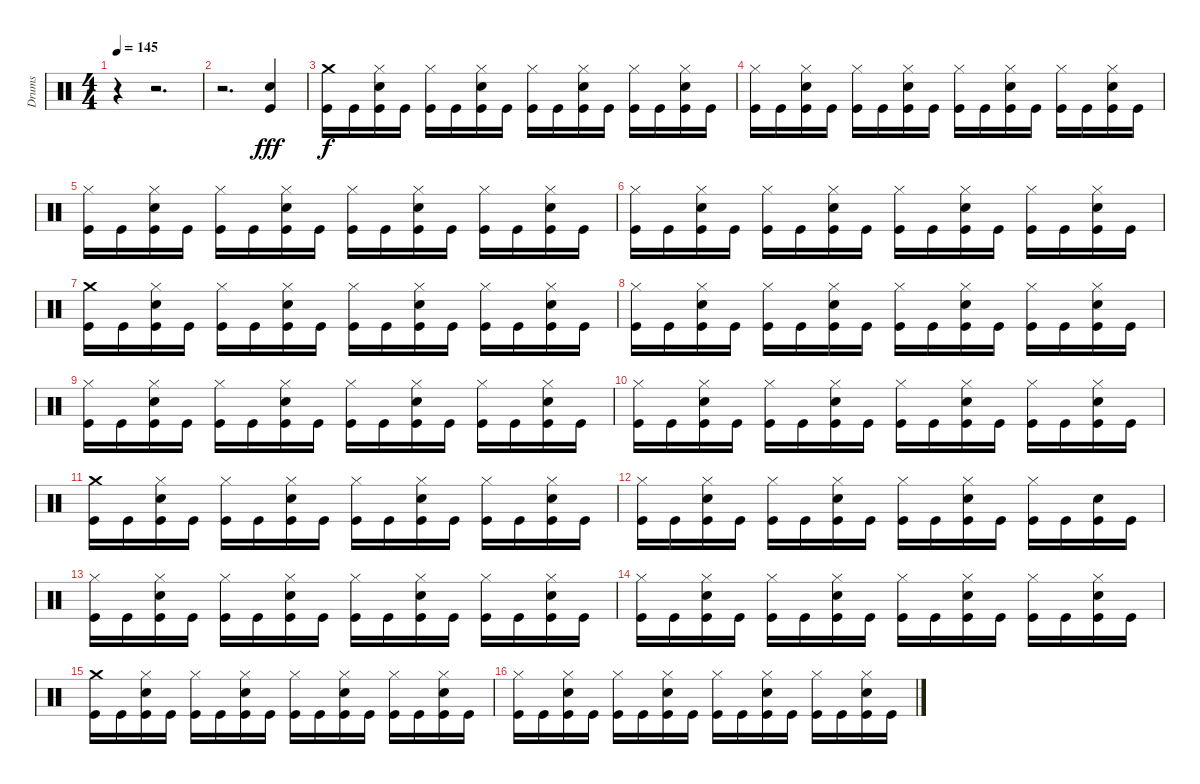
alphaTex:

\track ("Drums" "Drums") {instrument percussion}
\staff {score}
\articulation defaults
\ts (4 4)
\tempo 145
\clef neutral
\ks c
r.4{dy fff} r.2{d} |
r.2{d} ("Snare (hit) 2" "Kick (hit)").4 |
("Crash medium (hit)" "Kick (hit)").16{dy f} "Kick (hit)".16 ("Hi-Hat (closed)" "Snare (hit) 2" "Kick (hit)").16 "Kick (hit)".16 ("Hi-Hat (closed)" "Kick (hit)").16 "Kick (hit)".16 ("Hi-Hat (closed)" "Snare (hit) 2" "Kick (hit)").16 "Kick (hit)".16 ("Hi-Hat (closed)" "Kick (hit)").16 "Kick (hit)".16 ("Hi-Hat (closed)" "Snare (hit) 2" "Kick (hit)").16 "Kick (hit)".16 ("Hi-Hat (closed)" "Kick (hit)").16 "Kick (hit)".16 ("Hi-Hat (closed)" "Snare (hit) 2" "Kick (hit)").16 "Kick (hit)".16 |
("Hi-Hat (closed)" "Kick (hit)").16 "Kick (hit)".16 ("Hi-Hat (closed)" "Snare (hit) 2" "Kick (hit)").16 "Kick (hit)".16 ("Hi-Hat (closed)" "Kick (hit)").16 "Kick (hit)".16 ("Hi-Hat (closed)" "Snare (hit) 2" "Kick (hit)").16 "Kick (hit)".16 ("Hi-Hat (closed)" "Kick (hit)").16 "Kick (hit)".16 ("Hi-Hat (closed)" "Snare (hit) 2" "Kick (hit)").16 "Kick (hit)".16 ("Hi-Hat (closed)" "Kick (hit)").16 "Kick (hit)".16 ("Hi-Hat (closed)" "Snare (hit) 2" "Kick (hit)").16 "Kick (hit)".16 |
("Hi-Hat (closed)" "Kick (hit)").16 "Kick (hit)".16 ("Hi-Hat (closed)" "Snare (hit) 2" "Kick (hit)").16 "Kick (hit)".16 ("Hi-Hat (closed)" "Kick (hit)").16 "Kick (hit)".16 ("Hi-Hat (closed)" "Snare (hit) 2" "Kick (hit)").16 "Kick (hit)".16 ("Hi-Hat (closed)" "Kick (hit)").16 "Kick (hit)".16 ("Hi-Hat (closed)" "Snare (hit) 2" "Kick (hit)").16 "Kick (hit)".16 ("Hi-Hat (closed)" "Kick (hit)").16 "Kick (hit)".16 ("Hi-Hat (closed)" "Snare (hit) 2" "Kick (hit)").16 "Kick (hit)".16 |
("Hi-Hat (closed)" "Kick (hit)").16 "Kick (hit)".16 ("Hi-Hat (closed)" "Snare (hit) 2" "Kick (hit)").16 "Kick (hit)".16 ("Hi-Hat (closed)" "Kick (hit)").16 "Kick (hit)".16 ("Hi-Hat (closed)" "Snare (hit) 2" "Kick (hit)").16 "Kick (hit)".16 ("Hi-Hat (closed)" "Kick (hit)").16 "Kick (hit)".16 ("Hi-Hat (closed)" "Snare (hit) 2" "Kick (hit)").16 "Kick (hit)".16 ("Hi-Hat (closed)" "Kick (hit)").16 "Kick (hit)".16 ("Hi-Hat (closed)" "Snare (hit) 2" "Kick (hit)").16 "Kick (hit)".16 |
("Crash medium (hit)" "Kick (hit)").16 "Kick (hit)".16 ("Hi-Hat (closed)" "Snare (hit) 2" "Kick (hit)").16 "Kick (hit)".16 ("Hi-Hat (closed)" "Kick (hit)").16 "Kick (hit)".16 ("Hi-Hat (closed)" "Snare (hit) 2" "Kick (hit)").16 "Kick (hit)".16 ("Hi-Hat (closed)" "Kick (hit)").16 "Kick (hit)".16 ("Hi-Hat (closed)" "Snare (hit) 2" "Kick (hit)").16 "Kick (hit)".16 ("Hi-Hat (closed)" "Kick (hit)").16 "Kick (hit)".16 ("Hi-Hat (closed)" "Snare (hit) 2" "Kick (hit)").16 "Kick (hit)".16 |
("Hi-Hat (closed)" "Kick (hit)").16 "Kick (hit)".16 ("Hi-Hat (closed)" "Snare (hit) 2" "Kick (hit)").16 "Kick (hit)".16 ("Hi-Hat (closed)" "Kick (hit)").16 "Kick (hit)".16 ("Hi-Hat (closed)" "Snare (hit) 2" "Kick (hit)").16 "Kick (hit)".16 ("Hi-Hat (closed)" "Kick (hit)").16 "Kick (hit)".16 ("Hi-Hat (closed)" "Snare (hit) 2" "Kick (hit)").16 "Kick (hit)".16 ("Hi-Hat (closed)" "Kick (hit)").16 "Kick (hit)".16 ("Hi-Hat (closed)" "Snare (hit) 2" "Kick (hit)").16 "Kick (hit)".16 |
("Hi-Hat (closed)" "Kick (hit)").16 "Kick (hit)".16 ("Hi-Hat (closed)" "Snare (hit) 2" "Kick (hit)").16 "Kick (hit)".16 ("Hi-Hat (closed)" "Kick (hit)").16 "Kick (hit)".16 ("Hi-Hat (closed)" "Snare (hit) 2" "Kick (hit)").16 "Kick (hit)".16 ("Hi-Hat (closed)" "Kick (hit)").16 "Kick (hit)".16 ("Hi-Hat (closed)" "Snare (hit) 2" "Kick (hit)").16 "Kick (hit)".16 ("Hi-Hat (closed)" "Kick (hit)").16 "Kick (hit)".16 ("Hi-Hat (closed)" "Snare (hit) 2" "Kick (hit)").16 "Kick (hit)".16 |
("Hi-Hat (closed)" "Kick (hit)").16 "Kick (hit)".16 ("Hi-Hat (closed)" "Snare (hit) 2" "Kick (hit)").16 "Kick (hit)".16 ("Hi-Hat (closed)" "Kick (hit)").16 "Kick (hit)".16 ("Hi-Hat (closed)" "Snare (hit) 2" "Kick (hit)").16 "Kick (hit)".16 ("Hi-Hat (closed)" "Kick (hit)").16 "Kick (hit)".16 ("Hi-Hat (closed)" "Snare (hit) 2" "Kick (hit)").16 "Kick (hit)".16 ("Hi-Hat (closed)" "Kick (hit)").16 "Kick (hit)".16 ("Hi-Hat (closed)" "Snare (hit) 2" "Kick (hit)").16 "Kick (hit)".16 |
("Crash medium (hit)" "Kick (hit)").16 "Kick (hit)".16 ("Hi-Hat (closed)" "Snare (hit) 2" "Kick (hit)").16 "Kick (hit)".16 ("Hi-Hat (closed)" "Kick (hit)").16 "Kick (hit)".16 ("Hi-Hat (closed)" "Snare (hit) 2" "Kick (hit)").16 "Kick (hit)".16 ("Hi-Hat (closed)" "Kick (hit)").16 "Kick (hit)".16 ("Hi-Hat (closed)" "Snare (hit) 2" "Kick (hit)").16 "Kick (hit)".16 ("Hi-Hat (closed)" "Kick (hit)").16 "Kick (hit)".16 ("Hi-Hat (closed)" "Snare (hit) 2" "Kick (hit)").16 "Kick (hit)".16 |
("Hi-Hat (closed)" "Kick (hit)").16 "Kick (hit)".16 ("Hi-Hat (closed)" "Snare (hit) 2" "Kick (hit)").16 "Kick (hit)".16 ("Hi-Hat (closed)" "Kick (hit)").16 "Kick (hit)".16 ("Hi-Hat (closed)" "Snare (hit) 2" "Kick (hit)").16 "Kick (hit)".16 ("Hi-Hat (closed)" "Kick (hit)").16 "Kick (hit)".16 ("Hi-Hat (closed)" "Snare (hit) 2" "Kick (hit)").16 "Kick (hit)".16 ("Hi-Hat (closed)" "Kick (hit)").16 "Kick (hit)".16 ("Snare (hit) 2" "Kick (hit)").16 "Kick (hit)".16 |
("Hi-Hat (closed)" "Kick (hit)").16 "Kick (hit)".16 ("Hi-Hat (closed)" "Snare (hit) 2" "Kick (hit)").16 "Kick (hit)".16 ("Hi-Hat (closed)" "Kick (hit)").16 "Kick (hit)".16 ("Hi-Hat (closed)" "Snare (hit) 2" "Kick (hit)").16 "Kick (hit)".16 ("Hi-Hat (closed)" "Kick (hit)").16 "Kick (hit)".16 ("Hi-Hat (closed)" "Snare (hit) 2" "Kick (hit)").16 "Kick (hit)".16 ("Hi-Hat (closed)" "Kick (hit)").16 "Kick (hit)".16 ("Hi-Hat (closed)" "Snare (hit) 2" "Kick (hit)").16 "Kick (hit)".16 |
("Hi-Hat (closed)" "Kick (hit)").16 "Kick (hit)".16 ("Hi-Hat (closed)" "Snare (hit) 2" "Kick (hit)").16 "Kick (hit)".16 ("Hi-Hat (closed)" "Kick (hit)").16 "Kick (hit)".16 ("Hi-Hat (closed)" "Snare (hit) 2" "Kick (hit)").16 "Kick (hit)".16 ("Hi-Hat (closed)" "Kick (hit)").16 "Kick (hit)".16 ("Hi-Hat (closed)" "Snare (hit) 2" "Kick (hit)").16 "Kick (hit)".16 ("Hi-Hat (closed)" "Kick (hit)").16 "Kick (hit)".16 ("Hi-Hat (closed)" "Snare (hit) 2" "Kick (hit)").16 "Kick (hit)".16 |
("Crash medium (hit)" "Kick (hit)").16 "Kick (hit)".16 ("Hi-Hat (closed)" "Snare (hit) 2" "Kick (hit)").16 "Kick (hit)".16 ("Hi-Hat (closed)" "Kick (hit)").16 "Kick (hit)".16 ("Hi-Hat (closed)" "Snare (hit) 2" "Kick (hit)").16 "Kick (hit)".16 ("Hi-Hat (closed)" "Kick (hit)").16 "Kick (hit)".16 ("Hi-Hat (closed)" "Snare (hit) 2" "Kick (hit)").16 "Kick (hit)".16 ("Hi-Hat (closed)" "Kick (hit)").16 "Kick (hit)".16 ("Hi-Hat (closed)" "Snare (hit) 2" "Kick (hit)").16 "Kick (hit)".16 |
("Hi-Hat (closed)" "Kick (hit)").16 "Kick (hit)".16 ("Hi-Hat (closed)" "Snare (hit) 2" "Kick (hit)").16 "Kick (hit)".16 ("Hi-Hat (closed)" "Kick (hit)").16 "Kick (hit)".16 ("Hi-Hat (closed)" "Snare (hit) 2" "Kick (hit)").16 "Kick (hit)".16 ("Hi-Hat (closed)" "Kick (hit)").16 "Kick (hit)".16 ("Hi-Hat (closed)" "Snare (hit) 2" "Kick (hit)").16 "Kick (hit)".16 ("Hi-Hat (closed)" "Kick (hit)").16 "Kick (hit)".16 ("Hi-Hat (closed)" "Snare (hit) 2" "Kick (hit)").16 "Kick (hit)".16
